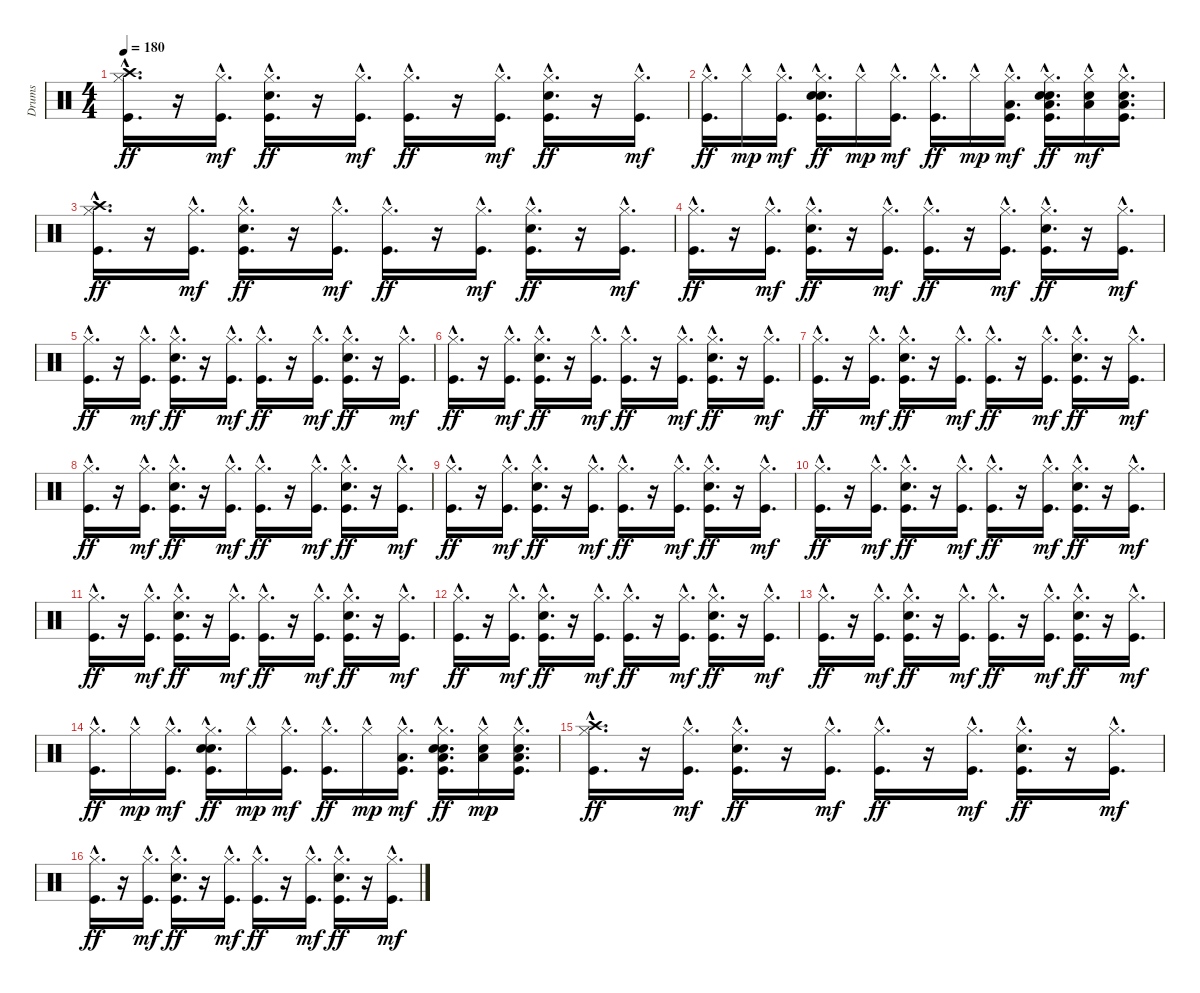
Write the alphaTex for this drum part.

\track ("Drums" "Drums") {instrument percussion}
\staff {score}
\articulation defaults
\ts (4 4)
\tempo 180
\clef neutral
\ks c
("Kick (hit)"{hac} "Hi-Hat (closed)"{hac} "Crash high (hit)"{hac}).16{d dy ff} r.16 ("Hi-Hat (closed)"{hac} "Kick (hit)"{hac}).16{d dy mf} ("Kick (hit)"{hac} "Snare (hit) 2"{hac} "Hi-Hat (closed)"{hac}).16{d dy ff} r.16 ("Kick (hit)"{hac} "Hi-Hat (closed)"{hac}).16{d dy mf} ("Kick (hit)"{hac} "Hi-Hat (closed)"{hac}).16{d dy ff} r.16 ("Hi-Hat (closed)"{hac} "Kick (hit)"{hac}).16{d dy mf} ("Snare (hit) 2"{hac} "Kick (hit)"{hac} "Hi-Hat (closed)"{hac}).16{d dy ff} r.16 ("Kick (hit)"{hac} "Hi-Hat (closed)"{hac}).16{d dy mf} |
("Kick (hit)"{hac} "Hi-Hat (closed)"{hac}).16{d dy ff} "Hi-Hat (closed)"{hac}.16{dy mp} ("Hi-Hat (closed)"{hac} "Kick (hit)"{hac}).16{d dy mf} ("Kick (hit)"{hac} "Hand Clap (hit)"{hac} "Hi-Hat (closed)"{hac} "Snare (hit) 2"{hac}).16{d dy ff} "Hi-Hat (closed)"{hac}.16{dy mp} ("Kick (hit)"{hac} "Hi-Hat (closed)"{hac}).16{d dy mf} ("Hi-Hat (closed)"{hac} "Kick (hit)"{hac}).16{d dy ff} "Hi-Hat (closed)"{hac}.16{dy mp} ("Kick (hit)"{hac} "Hi-Hat (closed)"{hac} "Low Tom (hit)"{hac}).16{d dy mf} ("Kick (hit)"{hac} "Snare (hit) 2"{hac} "Hand Clap (hit)"{hac} "Low Tom (hit)"{hac} "Hi-Hat (closed)"{hac}).16{d dy ff} ("Hi-Hat (closed)"{hac} "Snare (hit) 2"{hac} "Low Tom (hit)"{hac}).16{dy mf} ("Hi-Hat (closed)"{hac} "Snare (hit) 2"{hac} "Kick (hit)"{hac} "Low Tom (hit)"{hac}).16{d} |
("Kick (hit)"{hac} "Crash high (hit)"{hac} "Hi-Hat (closed)"{hac}).16{d dy ff} r.16 ("Kick (hit)"{hac} "Hi-Hat (closed)"{hac}).16{d dy mf} ("Snare (hit) 2"{hac} "Kick (hit)"{hac} "Hi-Hat (closed)"{hac}).16{d dy ff} r.16 ("Kick (hit)"{hac} "Hi-Hat (closed)"{hac}).16{d dy mf} ("Kick (hit)"{hac} "Hi-Hat (closed)"{hac}).16{d dy ff} r.16 ("Kick (hit)"{hac} "Hi-Hat (closed)"{hac}).16{d dy mf} ("Snare (hit) 2"{hac} "Kick (hit)"{hac} "Hi-Hat (closed)"{hac}).16{d dy ff} r.16 ("Kick (hit)"{hac} "Hi-Hat (closed)"{hac}).16{d dy mf} |
("Kick (hit)"{hac} "Hi-Hat (closed)"{hac}).16{d dy ff} r.16 ("Kick (hit)"{hac} "Hi-Hat (closed)"{hac}).16{d dy mf} ("Hi-Hat (closed)"{hac} "Snare (hit) 2"{hac} "Kick (hit)"{hac}).16{d dy ff} r.16 ("Kick (hit)"{hac} "Hi-Hat (closed)"{hac}).16{d dy mf} ("Kick (hit)"{hac} "Hi-Hat (closed)"{hac}).16{d dy ff} r.16 ("Kick (hit)"{hac} "Hi-Hat (closed)"{hac}).16{d dy mf} ("Snare (hit) 2"{hac} "Hi-Hat (closed)"{hac} "Kick (hit)"{hac}).16{d dy ff} r.16 ("Kick (hit)"{hac} "Hi-Hat (closed)"{hac}).16{d dy mf} |
("Kick (hit)"{hac} "Hi-Hat (closed)"{hac}).16{d dy ff} r.16 ("Kick (hit)"{hac} "Hi-Hat (closed)"{hac}).16{d dy mf} ("Hi-Hat (closed)"{hac} "Snare (hit) 2"{hac} "Kick (hit)"{hac}).16{d dy ff} r.16 ("Kick (hit)"{hac} "Hi-Hat (closed)"{hac}).16{d dy mf} ("Kick (hit)"{hac} "Hi-Hat (closed)"{hac}).16{d dy ff} r.16 ("Kick (hit)"{hac} "Hi-Hat (closed)"{hac}).16{d dy mf} ("Kick (hit)"{hac} "Hi-Hat (closed)"{hac} "Snare (hit) 2"{hac}).16{d dy ff} r.16 ("Kick (hit)"{hac} "Hi-Hat (closed)"{hac}).16{d dy mf} |
("Kick (hit)"{hac} "Hi-Hat (closed)"{hac}).16{d dy ff} r.16 ("Kick (hit)"{hac} "Hi-Hat (closed)"{hac}).16{d dy mf} ("Kick (hit)"{hac} "Hi-Hat (closed)"{hac} "Snare (hit) 2"{hac}).16{d dy ff} r.16 ("Hi-Hat (closed)"{hac} "Kick (hit)"{hac}).16{d dy mf} ("Kick (hit)"{hac} "Hi-Hat (closed)"{hac}).16{d dy ff} r.16 ("Kick (hit)"{hac} "Hi-Hat (closed)"{hac}).16{d dy mf} ("Hi-Hat (closed)"{hac} "Snare (hit) 2"{hac} "Kick (hit)"{hac}).16{d dy ff} r.16 ("Hi-Hat (closed)"{hac} "Kick (hit)"{hac}).16{d dy mf} |
("Kick (hit)"{hac} "Hi-Hat (closed)"{hac}).16{d dy ff} r.16 ("Kick (hit)"{hac} "Hi-Hat (closed)"{hac}).16{d dy mf} ("Hi-Hat (closed)"{hac} "Snare (hit) 2"{hac} "Kick (hit)"{hac}).16{d dy ff} r.16 ("Kick (hit)"{hac} "Hi-Hat (closed)"{hac}).16{d dy mf} ("Kick (hit)"{hac} "Hi-Hat (closed)"{hac}).16{d dy ff} r.16 ("Kick (hit)"{hac} "Hi-Hat (closed)"{hac}).16{d dy mf} ("Kick (hit)"{hac} "Snare (hit) 2"{hac} "Hi-Hat (closed)"{hac}).16{d dy ff} r.16 ("Hi-Hat (closed)"{hac} "Kick (hit)"{hac}).16{d dy mf} |
("Kick (hit)"{hac} "Hi-Hat (closed)"{hac}).16{d dy ff} r.16 ("Kick (hit)"{hac} "Hi-Hat (closed)"{hac}).16{d dy mf} ("Kick (hit)"{hac} "Snare (hit) 2"{hac} "Hi-Hat (closed)"{hac}).16{d dy ff} r.16 ("Hi-Hat (closed)"{hac} "Kick (hit)"{hac}).16{d dy mf} ("Hi-Hat (closed)"{hac} "Kick (hit)"{hac}).16{d dy ff} r.16 ("Kick (hit)"{hac} "Hi-Hat (closed)"{hac}).16{d dy mf} ("Kick (hit)"{hac} "Snare (hit) 2"{hac} "Hi-Hat (closed)"{hac}).16{d dy ff} r.16 ("Kick (hit)"{hac} "Hi-Hat (closed)"{hac}).16{d dy mf} |
("Hi-Hat (closed)"{hac} "Kick (hit)"{hac}).16{d dy ff} r.16 ("Kick (hit)"{hac} "Hi-Hat (closed)"{hac}).16{d dy mf} ("Kick (hit)"{hac} "Snare (hit) 2"{hac} "Hi-Hat (closed)"{hac}).16{d dy ff} r.16 ("Kick (hit)"{hac} "Hi-Hat (closed)"{hac}).16{d dy mf} ("Kick (hit)"{hac} "Hi-Hat (closed)"{hac}).16{d dy ff} r.16 ("Kick (hit)"{hac} "Hi-Hat (closed)"{hac}).16{d dy mf} ("Hi-Hat (closed)"{hac} "Snare (hit) 2"{hac} "Kick (hit)"{hac}).16{d dy ff} r.16 ("Kick (hit)"{hac} "Hi-Hat (closed)"{hac}).16{d dy mf} |
("Hi-Hat (closed)"{hac} "Kick (hit)"{hac}).16{d dy ff} r.16 ("Kick (hit)"{hac} "Hi-Hat (closed)"{hac}).16{d dy mf} ("Hi-Hat (closed)"{hac} "Snare (hit) 2"{hac} "Kick (hit)"{hac}).16{d dy ff} r.16 ("Kick (hit)"{hac} "Hi-Hat (closed)"{hac}).16{d dy mf} ("Hi-Hat (closed)"{hac} "Kick (hit)"{hac}).16{d dy ff} r.16 ("Hi-Hat (closed)"{hac} "Kick (hit)"{hac}).16{d dy mf} ("Hi-Hat (closed)"{hac} "Snare (hit) 2"{hac} "Kick (hit)"{hac}).16{d dy ff} r.16 ("Kick (hit)"{hac} "Hi-Hat (closed)"{hac}).16{d dy mf} |
("Kick (hit)"{hac} "Hi-Hat (closed)"{hac}).16{d dy ff} r.16 ("Hi-Hat (closed)"{hac} "Kick (hit)"{hac}).16{d dy mf} ("Hi-Hat (closed)"{hac} "Snare (hit) 2"{hac} "Kick (hit)"{hac}).16{d dy ff} r.16 ("Kick (hit)"{hac} "Hi-Hat (closed)"{hac}).16{d dy mf} ("Kick (hit)"{hac} "Hi-Hat (closed)"{hac}).16{d dy ff} r.16 ("Kick (hit)"{hac} "Hi-Hat (closed)"{hac}).16{d dy mf} ("Snare (hit) 2"{hac} "Kick (hit)"{hac} "Hi-Hat (closed)"{hac}).16{d dy ff} r.16 ("Kick (hit)"{hac} "Hi-Hat (closed)"{hac}).16{d dy mf} |
("Kick (hit)"{hac} "Hi-Hat (closed)"{hac}).16{d dy ff} r.16 ("Kick (hit)"{hac} "Hi-Hat (closed)"{hac}).16{d dy mf} ("Snare (hit) 2"{hac} "Kick (hit)"{hac} "Hi-Hat (closed)"{hac}).16{d dy ff} r.16 ("Kick (hit)"{hac} "Hi-Hat (closed)"{hac}).16{d dy mf} ("Kick (hit)"{hac} "Hi-Hat (closed)"{hac}).16{d dy ff} r.16 ("Kick (hit)"{hac} "Hi-Hat (closed)"{hac}).16{d dy mf} ("Hi-Hat (closed)"{hac} "Snare (hit) 2"{hac} "Kick (hit)"{hac}).16{d dy ff} r.16 ("Kick (hit)"{hac} "Hi-Hat (closed)"{hac}).16{d dy mf} |
("Kick (hit)"{hac} "Hi-Hat (closed)"{hac}).16{d dy ff} r.16 ("Kick (hit)"{hac} "Hi-Hat (closed)"{hac}).16{d dy mf} ("Snare (hit) 2"{hac} "Hi-Hat (closed)"{hac} "Kick (hit)"{hac}).16{d dy ff} r.16 ("Kick (hit)"{hac} "Hi-Hat (closed)"{hac}).16{d dy mf} ("Kick (hit)"{hac} "Hi-Hat (closed)"{hac}).16{d dy ff} r.16 ("Kick (hit)"{hac} "Hi-Hat (closed)"{hac}).16{d dy mf} ("Hi-Hat (closed)"{hac} "Snare (hit) 2"{hac} "Kick (hit)"{hac}).16{d dy ff} r.16 ("Kick (hit)"{hac} "Hi-Hat (closed)"{hac}).16{d dy mf} |
("Kick (hit)"{hac} "Hi-Hat (closed)"{hac}).16{d dy ff} "Hi-Hat (closed)"{hac}.16{dy mp} ("Kick (hit)"{hac} "Hi-Hat (closed)"{hac}).16{d dy mf} ("Snare (hit) 2"{hac} "Hi-Hat (closed)"{hac} "Kick (hit)"{hac} "Hand Clap (hit)"{hac}).16{d dy ff} "Hi-Hat (closed)"{hac}.16{dy mp} ("Kick (hit)"{hac} "Hi-Hat (closed)"{hac}).16{d dy mf} ("Kick (hit)"{hac} "Hi-Hat (closed)"{hac}).16{d dy ff} "Hi-Hat (closed)"{hac}.16{dy mp} ("Low Tom (hit)"{hac} "Hi-Hat (closed)"{hac} "Kick (hit)"{hac}).16{d dy mf} ("Hi-Hat (closed)"{hac} "Low Tom (hit)"{hac} "Kick (hit)"{hac} "Snare (hit) 2"{hac} "Hand Clap (hit)"{hac}).16{d dy ff} ("Snare (hit) 2"{hac} "Low Tom (hit)"{hac} "Hi-Hat (closed)"{hac}).16{dy mp} ("Kick (hit)"{hac} "Low Tom (hit)"{hac} "Hi-Hat (closed)"{hac} "Snare (hit) 2"{hac}).16{d} |
("Kick (hit)"{hac} "Hi-Hat (closed)"{hac} "Crash high (hit)"{hac}).16{d dy ff} r.16 ("Hi-Hat (closed)"{hac} "Kick (hit)"{hac}).16{d dy mf} ("Snare (hit) 2"{hac} "Kick (hit)"{hac} "Hi-Hat (closed)"{hac}).16{d dy ff} r.16 ("Kick (hit)"{hac} "Hi-Hat (closed)"{hac}).16{d dy mf} ("Kick (hit)"{hac} "Hi-Hat (closed)"{hac}).16{d dy ff} r.16 ("Kick (hit)"{hac} "Hi-Hat (closed)"{hac}).16{d dy mf} ("Snare (hit) 2"{hac} "Kick (hit)"{hac} "Hi-Hat (closed)"{hac}).16{d dy ff} r.16 ("Kick (hit)"{hac} "Hi-Hat (closed)"{hac}).16{d dy mf} |
("Kick (hit)"{hac} "Hi-Hat (closed)"{hac}).16{d dy ff} r.16 ("Kick (hit)"{hac} "Hi-Hat (closed)"{hac}).16{d dy mf} ("Hi-Hat (closed)"{hac} "Snare (hit) 2"{hac} "Kick (hit)"{hac}).16{d dy ff} r.16 ("Kick (hit)"{hac} "Hi-Hat (closed)"{hac}).16{d dy mf} ("Kick (hit)"{hac} "Hi-Hat (closed)"{hac}).16{d dy ff} r.16 ("Kick (hit)"{hac} "Hi-Hat (closed)"{hac}).16{d dy mf} ("Snare (hit) 2"{hac} "Hi-Hat (closed)"{hac} "Kick (hit)"{hac}).16{d dy ff} r.16 ("Kick (hit)"{hac} "Hi-Hat (closed)"{hac}).16{d dy mf}
